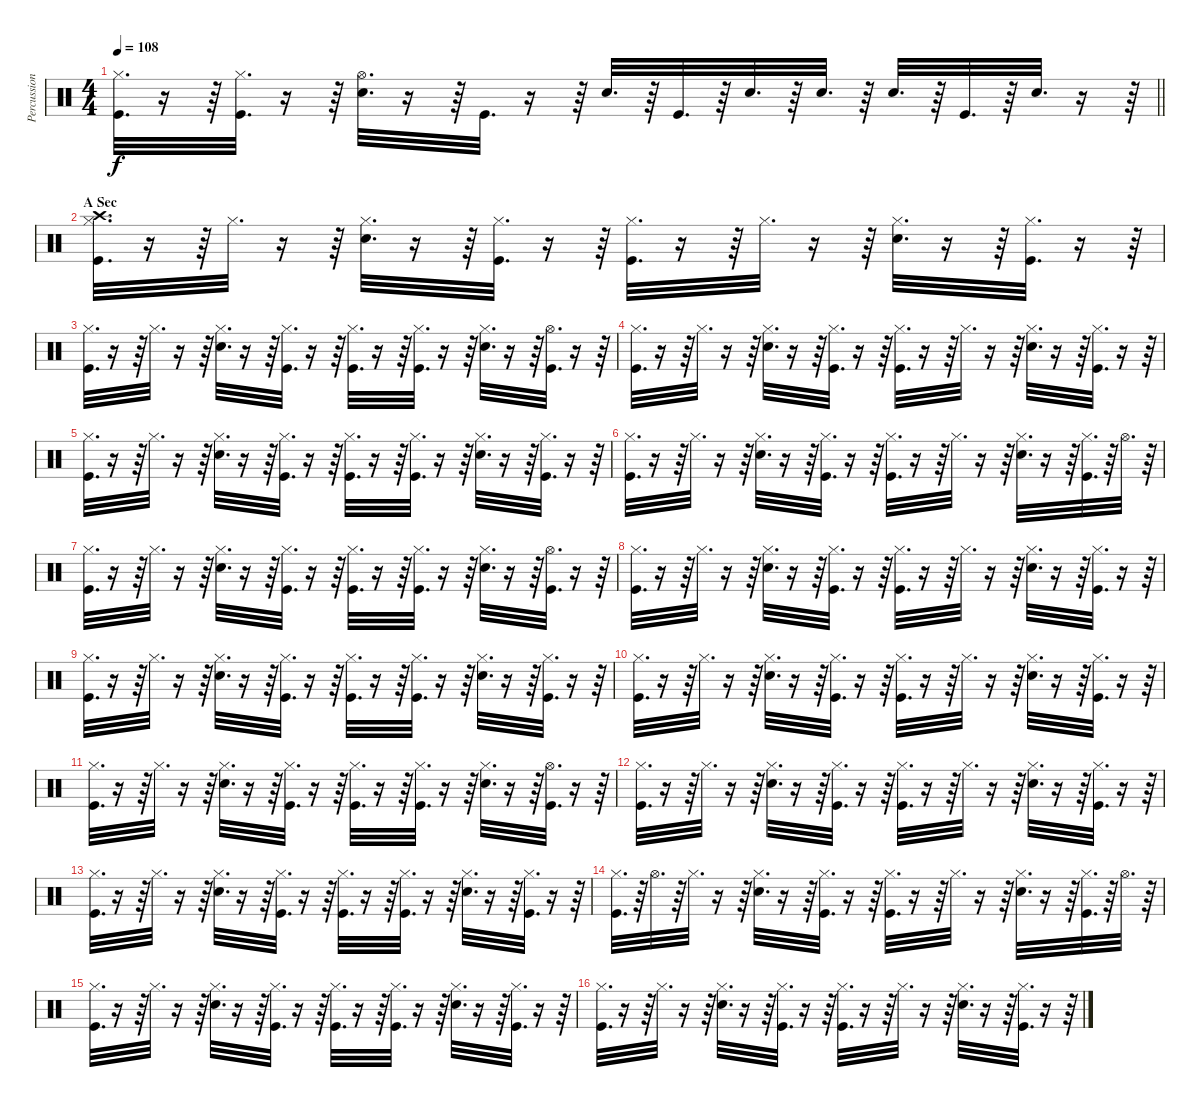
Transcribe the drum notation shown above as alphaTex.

\track ("Percussions" "Percussion") {instrument percussion}
\staff {score}
\articulation defaults
\ts (4 4)
\tempo 108
\clef neutral
\barLineRight lightlight
\ks c
("Hi-Hat (closed)" "Kick (hit)").32{d dy f} r.16 r.64 ("Hi-Hat (closed)" "Kick (hit)").32{d} r.16 r.64 ("Hi-Hat (open)" "Snare (hit) 2").32{d} r.16 r.64 "Kick (hit)".32{d} r.16 r.64 "Snare (hit) 2".32{d} r.64 "Kick (hit)".32{d} r.64 "Snare (hit) 2".32{d} r.64 "Snare (hit) 2".32{d} r.64 "Snare (hit) 2".32{d} r.64 "Kick (hit)".32{d} r.64 "Snare (hit) 2".32{d} r.16 r.64 |
\section ("" "A Sec")
("Crash high (hit)" "Hi-Hat (closed)" "Kick (hit)").32{d} r.16 r.64 "Hi-Hat (closed)".32{d} r.16 r.64 ("Hi-Hat (closed)" "Snare (hit) 2").32{d} r.16 r.64 ("Hi-Hat (closed)" "Kick (hit)").32{d} r.16 r.64 ("Hi-Hat (closed)" "Kick (hit)").32{d} r.16 r.64 "Hi-Hat (closed)".32{d} r.16 r.64 ("Hi-Hat (closed)" "Snare (hit) 2").32{d} r.16 r.64 ("Hi-Hat (closed)" "Kick (hit)").32{d} r.16 r.64 |
("Hi-Hat (closed)" "Kick (hit)").32{d} r.16 r.64 "Hi-Hat (closed)".32{d} r.16 r.64 ("Hi-Hat (closed)" "Snare (hit) 2").32{d} r.16 r.64 ("Hi-Hat (closed)" "Kick (hit)").32{d} r.16 r.64 ("Hi-Hat (closed)" "Kick (hit)").32{d} r.16 r.64 ("Hi-Hat (closed)" "Kick (hit)").32{d} r.16 r.64 ("Hi-Hat (closed)" "Snare (hit) 2").32{d} r.16 r.64 ("Hi-Hat (open)" "Kick (hit)").32{d} r.16 r.64 |
("Hi-Hat (closed)" "Kick (hit)").32{d} r.16 r.64 "Hi-Hat (closed)".32{d} r.16 r.64 ("Hi-Hat (closed)" "Snare (hit) 2").32{d} r.16 r.64 ("Hi-Hat (closed)" "Kick (hit)").32{d} r.16 r.64 ("Hi-Hat (closed)" "Kick (hit)").32{d} r.16 r.64 "Hi-Hat (closed)".32{d} r.16 r.64 ("Hi-Hat (closed)" "Snare (hit) 2").32{d} r.16 r.64 ("Hi-Hat (closed)" "Kick (hit)").32{d} r.16 r.64 |
("Hi-Hat (closed)" "Kick (hit)").32{d} r.16 r.64 "Hi-Hat (closed)".32{d} r.16 r.64 ("Hi-Hat (closed)" "Snare (hit) 2").32{d} r.16 r.64 ("Hi-Hat (closed)" "Kick (hit)").32{d} r.16 r.64 ("Hi-Hat (closed)" "Kick (hit)").32{d} r.16 r.64 ("Hi-Hat (closed)" "Kick (hit)").32{d} r.16 r.64 ("Hi-Hat (closed)" "Snare (hit) 2").32{d} r.16 r.64 ("Hi-Hat (closed)" "Kick (hit)").32{d} r.16 r.64 |
("Hi-Hat (closed)" "Kick (hit)").32{d} r.16 r.64 "Hi-Hat (closed)".32{d} r.16 r.64 ("Hi-Hat (closed)" "Snare (hit) 2").32{d} r.16 r.64 ("Hi-Hat (closed)" "Kick (hit)").32{d} r.16 r.64 ("Hi-Hat (closed)" "Kick (hit)").32{d} r.16 r.64 "Hi-Hat (closed)".32{d} r.16 r.64 ("Hi-Hat (closed)" "Snare (hit) 2").32{d} r.16 r.64 ("Hi-Hat (closed)" "Kick (hit)").32{d} r.64 "Hi-Hat (open)".32{d} r.64 |
("Hi-Hat (closed)" "Kick (hit)").32{d} r.16 r.64 "Hi-Hat (closed)".32{d} r.16 r.64 ("Hi-Hat (closed)" "Snare (hit) 2").32{d} r.16 r.64 ("Hi-Hat (closed)" "Kick (hit)").32{d} r.16 r.64 ("Hi-Hat (closed)" "Kick (hit)").32{d} r.16 r.64 ("Hi-Hat (closed)" "Kick (hit)").32{d} r.16 r.64 ("Hi-Hat (closed)" "Snare (hit) 2").32{d} r.16 r.64 ("Hi-Hat (open)" "Kick (hit)").32{d} r.16 r.64 |
("Hi-Hat (closed)" "Kick (hit)").32{d} r.16 r.64 "Hi-Hat (closed)".32{d} r.16 r.64 ("Hi-Hat (closed)" "Snare (hit) 2").32{d} r.16 r.64 ("Hi-Hat (closed)" "Kick (hit)").32{d} r.16 r.64 ("Hi-Hat (closed)" "Kick (hit)").32{d} r.16 r.64 "Hi-Hat (closed)".32{d} r.16 r.64 ("Hi-Hat (closed)" "Snare (hit) 2").32{d} r.16 r.64 ("Hi-Hat (closed)" "Kick (hit)").32{d} r.16 r.64 |
("Hi-Hat (closed)" "Kick (hit)").32{d} r.16 r.64 "Hi-Hat (closed)".32{d} r.16 r.64 ("Hi-Hat (closed)" "Snare (hit) 2").32{d} r.16 r.64 ("Hi-Hat (closed)" "Kick (hit)").32{d} r.16 r.64 ("Hi-Hat (closed)" "Kick (hit)").32{d} r.16 r.64 ("Hi-Hat (closed)" "Kick (hit)").32{d} r.16 r.64 ("Hi-Hat (closed)" "Snare (hit) 2").32{d} r.16 r.64 ("Hi-Hat (closed)" "Kick (hit)").32{d} r.16 r.64 |
("Hi-Hat (closed)" "Kick (hit)").32{d} r.16 r.64 "Hi-Hat (closed)".32{d} r.16 r.64 ("Hi-Hat (closed)" "Snare (hit) 2").32{d} r.16 r.64 ("Hi-Hat (closed)" "Kick (hit)").32{d} r.16 r.64 ("Hi-Hat (closed)" "Kick (hit)").32{d} r.16 r.64 "Hi-Hat (closed)".32{d} r.16 r.64 ("Hi-Hat (closed)" "Snare (hit) 2").32{d} r.16 r.64 ("Hi-Hat (closed)" "Kick (hit)").32{d} r.16 r.64 |
("Hi-Hat (closed)" "Kick (hit)").32{d} r.16 r.64 "Hi-Hat (closed)".32{d} r.16 r.64 ("Hi-Hat (closed)" "Snare (hit) 2").32{d} r.16 r.64 ("Hi-Hat (closed)" "Kick (hit)").32{d} r.16 r.64 ("Hi-Hat (closed)" "Kick (hit)").32{d} r.16 r.64 ("Hi-Hat (closed)" "Kick (hit)").32{d} r.16 r.64 ("Hi-Hat (closed)" "Snare (hit) 2").32{d} r.16 r.64 ("Hi-Hat (open)" "Kick (hit)").32{d} r.16 r.64 |
("Hi-Hat (closed)" "Kick (hit)").32{d} r.16 r.64 "Hi-Hat (closed)".32{d} r.16 r.64 ("Hi-Hat (closed)" "Snare (hit) 2").32{d} r.16 r.64 ("Hi-Hat (closed)" "Kick (hit)").32{d} r.16 r.64 ("Hi-Hat (closed)" "Kick (hit)").32{d} r.16 r.64 "Hi-Hat (closed)".32{d} r.16 r.64 ("Hi-Hat (closed)" "Snare (hit) 2").32{d} r.16 r.64 ("Hi-Hat (closed)" "Kick (hit)").32{d} r.16 r.64 |
("Hi-Hat (closed)" "Kick (hit)").32{d} r.16 r.64 "Hi-Hat (closed)".32{d} r.16 r.64 ("Hi-Hat (closed)" "Snare (hit) 2").32{d} r.16 r.64 ("Hi-Hat (closed)" "Kick (hit)").32{d} r.16 r.64 ("Hi-Hat (closed)" "Kick (hit)").32{d} r.16 r.64 ("Hi-Hat (closed)" "Kick (hit)").32{d} r.16 r.64 ("Hi-Hat (closed)" "Snare (hit) 2").32{d} r.16 r.64 ("Hi-Hat (closed)" "Kick (hit)").32{d} r.16 r.64 |
("Hi-Hat (closed)" "Kick (hit)").32{d} r.64 "Hi-Hat (open)".32{d} r.64 "Hi-Hat (closed)".32{d} r.16 r.64 ("Hi-Hat (closed)" "Snare (hit) 2").32{d} r.16 r.64 ("Hi-Hat (closed)" "Kick (hit)").32{d} r.16 r.64 ("Hi-Hat (closed)" "Kick (hit)").32{d} r.16 r.64 "Hi-Hat (closed)".32{d} r.16 r.64 ("Hi-Hat (closed)" "Snare (hit) 2").32{d} r.16{txt ""} r.64 ("Hi-Hat (closed)" "Kick (hit)").32{d} r.64 "Hi-Hat (open)".32{d} r.64 |
("Hi-Hat (closed)" "Kick (hit)").32{d} r.16 r.64 "Hi-Hat (closed)".32{d} r.16 r.64 ("Hi-Hat (closed)" "Snare (hit) 2").32{d} r.16 r.64 ("Hi-Hat (closed)" "Kick (hit)").32{d} r.16 r.64 ("Hi-Hat (closed)" "Kick (hit)").32{d} r.16 r.64 ("Hi-Hat (closed)" "Kick (hit)").32{d} r.16 r.64 ("Hi-Hat (closed)" "Snare (hit) 2").32{d} r.16 r.64 ("Hi-Hat (closed)" "Kick (hit)").32{d} r.16 r.64 |
("Hi-Hat (closed)" "Kick (hit)").32{d} r.16 r.64 "Hi-Hat (closed)".32{d} r.16 r.64 ("Hi-Hat (closed)" "Snare (hit) 2").32{d} r.16 r.64 ("Hi-Hat (closed)" "Kick (hit)").32{d} r.16 r.64 ("Hi-Hat (closed)" "Kick (hit)").32{d} r.16 r.64 "Hi-Hat (closed)".32{d} r.16 r.64 ("Hi-Hat (closed)" "Snare (hit) 2").32{d} r.16 r.64 ("Hi-Hat (closed)" "Kick (hit)").32{d} r.16 r.64
